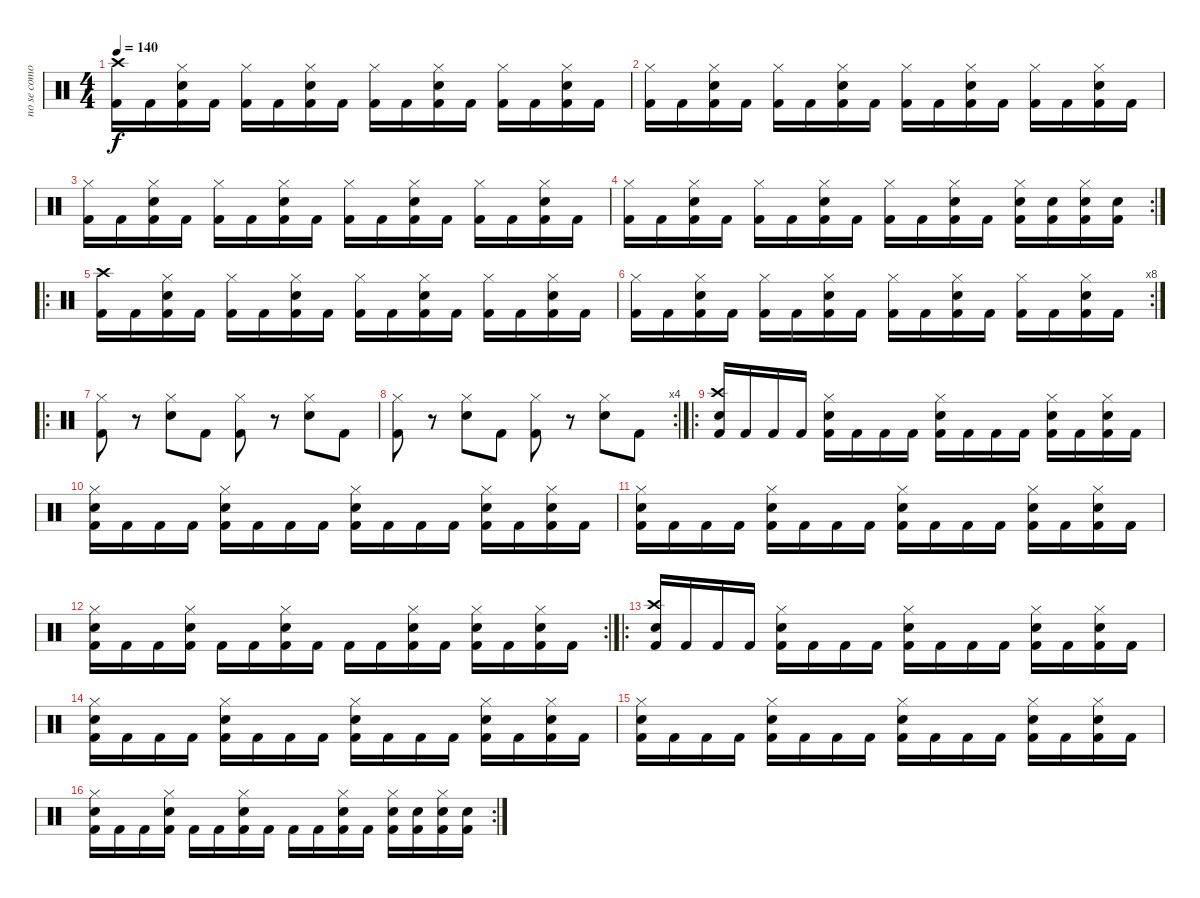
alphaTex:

\track ("no se como se llama" "no se como") {instrument percussion}
\staff {score}
\articulation defaults
\ts (4 4)
\tempo 140
\clef neutral
\ks c
("Kick (hit) 2" "Crash high (hit)").16{dy f} "Kick (hit) 2".16 ("Kick (hit) 2" "Electric Snare (hit)" "Hi-Hat (closed)").16 "Kick (hit) 2".16 ("Kick (hit) 2" "Hi-Hat (closed)").16 "Kick (hit) 2".16 ("Kick (hit) 2" "Electric Snare (hit)" "Hi-Hat (closed)").16 "Kick (hit) 2".16 ("Kick (hit) 2" "Hi-Hat (closed)").16 "Kick (hit) 2".16 ("Kick (hit) 2" "Electric Snare (hit)" "Hi-Hat (closed)").16 "Kick (hit) 2".16 ("Kick (hit) 2" "Hi-Hat (closed)").16 "Kick (hit) 2".16 ("Kick (hit) 2" "Electric Snare (hit)" "Hi-Hat (closed)").16 "Kick (hit) 2".16 |
("Kick (hit) 2" "Hi-Hat (closed)").16 "Kick (hit) 2".16 ("Kick (hit) 2" "Electric Snare (hit)" "Hi-Hat (closed)").16 "Kick (hit) 2".16 ("Kick (hit) 2" "Hi-Hat (closed)").16 "Kick (hit) 2".16 ("Kick (hit) 2" "Electric Snare (hit)" "Hi-Hat (closed)").16 "Kick (hit) 2".16 ("Kick (hit) 2" "Hi-Hat (closed)").16 "Kick (hit) 2".16 ("Kick (hit) 2" "Electric Snare (hit)" "Hi-Hat (closed)").16 "Kick (hit) 2".16 ("Kick (hit) 2" "Hi-Hat (closed)").16 "Kick (hit) 2".16 ("Kick (hit) 2" "Electric Snare (hit)" "Hi-Hat (closed)").16 "Kick (hit) 2".16 |
("Kick (hit) 2" "Hi-Hat (closed)").16 "Kick (hit) 2".16 ("Kick (hit) 2" "Electric Snare (hit)" "Hi-Hat (closed)").16 "Kick (hit) 2".16 ("Kick (hit) 2" "Hi-Hat (closed)").16 "Kick (hit) 2".16 ("Kick (hit) 2" "Electric Snare (hit)" "Hi-Hat (closed)").16 "Kick (hit) 2".16 ("Kick (hit) 2" "Hi-Hat (closed)").16 "Kick (hit) 2".16 ("Kick (hit) 2" "Electric Snare (hit)" "Hi-Hat (closed)").16 "Kick (hit) 2".16 ("Kick (hit) 2" "Hi-Hat (closed)").16 "Kick (hit) 2".16 ("Kick (hit) 2" "Electric Snare (hit)" "Hi-Hat (closed)").16 "Kick (hit) 2".16 |
\rc 2
("Kick (hit) 2" "Hi-Hat (closed)").16 "Kick (hit) 2".16 ("Kick (hit) 2" "Electric Snare (hit)" "Hi-Hat (closed)").16 "Kick (hit) 2".16 ("Kick (hit) 2" "Hi-Hat (closed)").16 "Kick (hit) 2".16 ("Kick (hit) 2" "Electric Snare (hit)" "Hi-Hat (closed)").16 "Kick (hit) 2".16 ("Kick (hit) 2" "Hi-Hat (closed)").16 "Kick (hit) 2".16 ("Kick (hit) 2" "Electric Snare (hit)" "Hi-Hat (closed)").16 "Kick (hit) 2".16 ("Kick (hit) 2" "Electric Snare (hit)" "Hi-Hat (closed)").16 ("Kick (hit) 2" "Electric Snare (hit)").16 ("Kick (hit) 2" "Electric Snare (hit)" "Hi-Hat (closed)").16 ("Kick (hit) 2" "Electric Snare (hit)").16 |
\ro
("Kick (hit) 2" "Crash high (hit)").16 "Kick (hit) 2".16 ("Kick (hit) 2" "Electric Snare (hit)" "Hi-Hat (closed)").16 "Kick (hit) 2".16 ("Kick (hit) 2" "Hi-Hat (closed)").16 "Kick (hit) 2".16 ("Kick (hit) 2" "Electric Snare (hit)" "Hi-Hat (closed)").16 "Kick (hit) 2".16 ("Kick (hit) 2" "Hi-Hat (closed)").16 "Kick (hit) 2".16 ("Kick (hit) 2" "Electric Snare (hit)" "Hi-Hat (closed)").16 "Kick (hit) 2".16 ("Kick (hit) 2" "Hi-Hat (closed)").16 "Kick (hit) 2".16 ("Kick (hit) 2" "Electric Snare (hit)" "Hi-Hat (closed)").16 "Kick (hit) 2".16 |
\rc 8
("Kick (hit) 2" "Hi-Hat (closed)").16 "Kick (hit) 2".16 ("Kick (hit) 2" "Electric Snare (hit)" "Hi-Hat (closed)").16 "Kick (hit) 2".16 ("Kick (hit) 2" "Hi-Hat (closed)").16 "Kick (hit) 2".16 ("Kick (hit) 2" "Electric Snare (hit)" "Hi-Hat (closed)").16 "Kick (hit) 2".16 ("Kick (hit) 2" "Hi-Hat (closed)").16 "Kick (hit) 2".16 ("Kick (hit) 2" "Electric Snare (hit)" "Hi-Hat (closed)").16 "Kick (hit) 2".16 ("Kick (hit) 2" "Hi-Hat (closed)").16 "Kick (hit) 2".16 ("Kick (hit) 2" "Electric Snare (hit)" "Hi-Hat (closed)").16 "Kick (hit) 2".16 |
\ro
("Kick (hit) 2" "Hi-Hat (closed)").8 r.8 ("Electric Snare (hit)" "Hi-Hat (closed)").8 "Kick (hit) 2".8 ("Kick (hit) 2" "Hi-Hat (closed)").8 r.8 ("Electric Snare (hit)" "Hi-Hat (closed)").8 "Kick (hit) 2".8 |
\rc 4
("Kick (hit) 2" "Hi-Hat (closed)").8 r.8 ("Electric Snare (hit)" "Hi-Hat (closed)").8 "Kick (hit) 2".8 ("Kick (hit) 2" "Hi-Hat (closed)").8 r.8 ("Electric Snare (hit)" "Hi-Hat (closed)").8 "Kick (hit) 2".8 |
\ro
("Kick (hit) 2" "Electric Snare (hit)" "Crash high (hit)").16 "Kick (hit) 2".16 "Kick (hit) 2".16 "Kick (hit) 2".16 ("Kick (hit) 2" "Electric Snare (hit)" "Hi-Hat (closed)").16 "Kick (hit) 2".16 "Kick (hit) 2".16 "Kick (hit) 2".16 ("Kick (hit) 2" "Electric Snare (hit)" "Hi-Hat (closed)").16 "Kick (hit) 2".16 "Kick (hit) 2".16 "Kick (hit) 2".16 ("Kick (hit) 2" "Electric Snare (hit)" "Hi-Hat (closed)").16 "Kick (hit) 2".16 ("Kick (hit) 2" "Electric Snare (hit)" "Hi-Hat (closed)").16 "Kick (hit) 2".16 |
("Kick (hit) 2" "Electric Snare (hit)" "Hi-Hat (closed)").16 "Kick (hit) 2".16 "Kick (hit) 2".16 "Kick (hit) 2".16 ("Kick (hit) 2" "Electric Snare (hit)" "Hi-Hat (closed)").16 "Kick (hit) 2".16 "Kick (hit) 2".16 "Kick (hit) 2".16 ("Kick (hit) 2" "Electric Snare (hit)" "Hi-Hat (closed)").16 "Kick (hit) 2".16 "Kick (hit) 2".16 "Kick (hit) 2".16 ("Kick (hit) 2" "Electric Snare (hit)" "Hi-Hat (closed)").16 "Kick (hit) 2".16 ("Kick (hit) 2" "Electric Snare (hit)" "Hi-Hat (closed)").16 "Kick (hit) 2".16 |
("Kick (hit) 2" "Electric Snare (hit)" "Hi-Hat (closed)").16 "Kick (hit) 2".16 "Kick (hit) 2".16 "Kick (hit) 2".16 ("Kick (hit) 2" "Electric Snare (hit)" "Hi-Hat (closed)").16 "Kick (hit) 2".16 "Kick (hit) 2".16 "Kick (hit) 2".16 ("Kick (hit) 2" "Electric Snare (hit)" "Hi-Hat (closed)").16 "Kick (hit) 2".16 "Kick (hit) 2".16 "Kick (hit) 2".16 ("Kick (hit) 2" "Electric Snare (hit)" "Hi-Hat (closed)").16 "Kick (hit) 2".16 ("Kick (hit) 2" "Electric Snare (hit)" "Hi-Hat (closed)").16 "Kick (hit) 2".16 |
\rc 2
("Kick (hit) 2" "Electric Snare (hit)" "Hi-Hat (closed)").16 "Kick (hit) 2".16 "Kick (hit) 2".16 ("Kick (hit) 2" "Electric Snare (hit)" "Hi-Hat (closed)").16 "Kick (hit) 2".16 "Kick (hit) 2".16 ("Kick (hit) 2" "Electric Snare (hit)" "Hi-Hat (closed)").16 "Kick (hit) 2".16 "Kick (hit) 2".16 "Kick (hit) 2".16 ("Kick (hit) 2" "Electric Snare (hit)" "Hi-Hat (closed)").16 "Kick (hit) 2".16 ("Kick (hit) 2" "Electric Snare (hit)" "Hi-Hat (closed)").16 "Kick (hit) 2".16 ("Kick (hit) 2" "Electric Snare (hit)" "Hi-Hat (closed)").16 "Kick (hit) 2".16 |
\ro
("Kick (hit) 2" "Electric Snare (hit)" "Crash high (hit)").16 "Kick (hit) 2".16 "Kick (hit) 2".16 "Kick (hit) 2".16 ("Kick (hit) 2" "Electric Snare (hit)" "Hi-Hat (closed)").16 "Kick (hit) 2".16 "Kick (hit) 2".16 "Kick (hit) 2".16 ("Kick (hit) 2" "Electric Snare (hit)" "Hi-Hat (closed)").16 "Kick (hit) 2".16 "Kick (hit) 2".16 "Kick (hit) 2".16 ("Kick (hit) 2" "Electric Snare (hit)" "Hi-Hat (closed)").16 "Kick (hit) 2".16 ("Kick (hit) 2" "Electric Snare (hit)" "Hi-Hat (closed)").16 "Kick (hit) 2".16 |
("Kick (hit) 2" "Electric Snare (hit)" "Hi-Hat (closed)").16 "Kick (hit) 2".16 "Kick (hit) 2".16 "Kick (hit) 2".16 ("Kick (hit) 2" "Electric Snare (hit)" "Hi-Hat (closed)").16 "Kick (hit) 2".16 "Kick (hit) 2".16 "Kick (hit) 2".16 ("Kick (hit) 2" "Electric Snare (hit)" "Hi-Hat (closed)").16 "Kick (hit) 2".16 "Kick (hit) 2".16 "Kick (hit) 2".16 ("Kick (hit) 2" "Electric Snare (hit)" "Hi-Hat (closed)").16 "Kick (hit) 2".16 ("Kick (hit) 2" "Electric Snare (hit)" "Hi-Hat (closed)").16 "Kick (hit) 2".16 |
("Kick (hit) 2" "Electric Snare (hit)" "Hi-Hat (closed)").16 "Kick (hit) 2".16 "Kick (hit) 2".16 "Kick (hit) 2".16 ("Kick (hit) 2" "Electric Snare (hit)" "Hi-Hat (closed)").16 "Kick (hit) 2".16 "Kick (hit) 2".16 "Kick (hit) 2".16 ("Kick (hit) 2" "Electric Snare (hit)" "Hi-Hat (closed)").16 "Kick (hit) 2".16 "Kick (hit) 2".16 "Kick (hit) 2".16 ("Kick (hit) 2" "Electric Snare (hit)" "Hi-Hat (closed)").16 "Kick (hit) 2".16 ("Kick (hit) 2" "Electric Snare (hit)" "Hi-Hat (closed)").16 "Kick (hit) 2".16 |
\rc 2
("Kick (hit) 2" "Electric Snare (hit)" "Hi-Hat (closed)").16 "Kick (hit) 2".16 "Kick (hit) 2".16 ("Kick (hit) 2" "Electric Snare (hit)" "Hi-Hat (closed)").16 "Kick (hit) 2".16 "Kick (hit) 2".16 ("Kick (hit) 2" "Electric Snare (hit)" "Hi-Hat (closed)").16 "Kick (hit) 2".16 "Kick (hit) 2".16 "Kick (hit) 2".16 ("Kick (hit) 2" "Electric Snare (hit)" "Hi-Hat (closed)").16 "Kick (hit) 2".16 ("Kick (hit) 2" "Electric Snare (hit)" "Hi-Hat (closed)").16 ("Kick (hit) 2" "Electric Snare (hit)").16 ("Kick (hit) 2" "Electric Snare (hit)" "Hi-Hat (closed)").16 ("Kick (hit) 2" "Electric Snare (hit)").16
